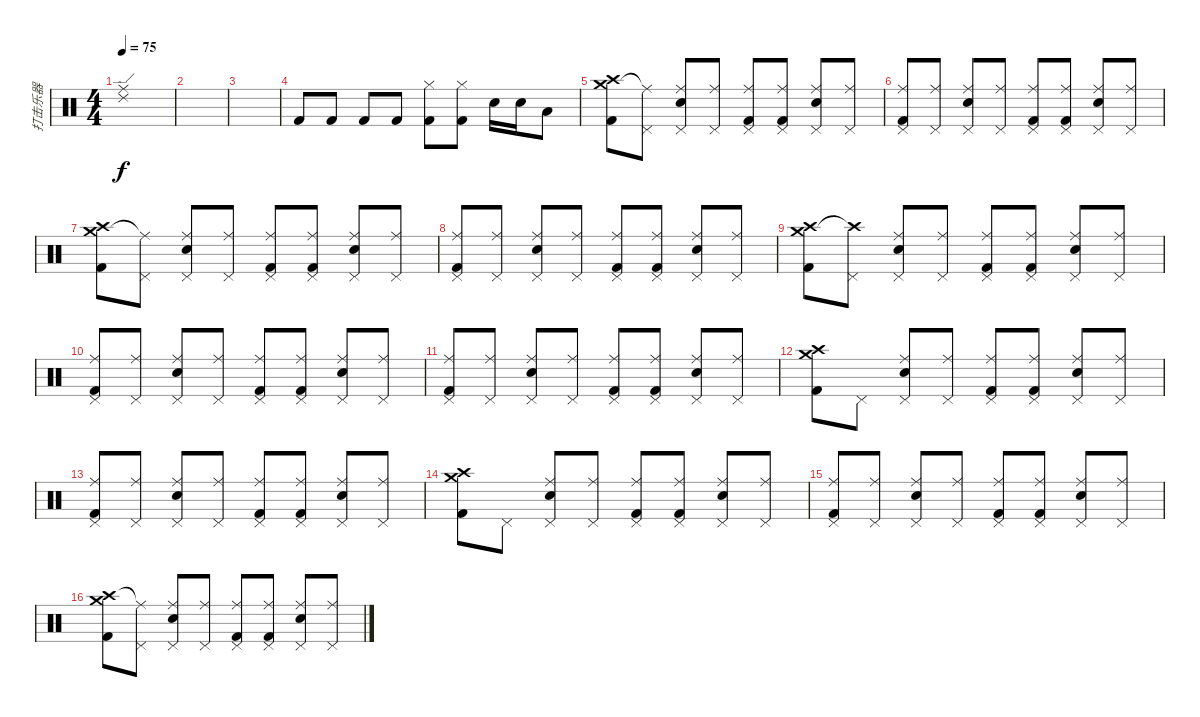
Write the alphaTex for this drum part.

\track ("打击乐器" "打击乐器") {instrument percussion}
\staff {score}
\articulation defaults
\ts (4 4)
\tempo 75
\clef neutral
\ks c
("Ride (edge) 2" "Ride (middle)").1{dy f} |
|
|
"Kick (hit) 2".8 "Kick (hit) 2".8 "Kick (hit) 2".8 "Kick (hit) 2".8 ("Hi-Hat (closed)" "Kick (hit) 2").8 ("Hi-Hat (closed)" "Kick (hit) 2").8 "Electric Snare (hit)".16 "Electric Snare (hit)".16 "Low Tom (hit)".8 |
("Crash medium (hit)" "Crash high (hit)" "Kick (hit) 2").8 ("Ride (middle)"{t} "Pedal Hi-Hat (hit)").8 ("Ride (middle)" "Pedal Hi-Hat (hit)" "Electric Snare (hit)").8 ("Ride (middle)" "Pedal Hi-Hat (hit)").8 ("Ride (middle)" "Pedal Hi-Hat (hit)" "Kick (hit) 2").8 ("Ride (middle)" "Pedal Hi-Hat (hit)" "Kick (hit) 2").8 ("Ride (middle)" "Pedal Hi-Hat (hit)" "Electric Snare (hit)").8 ("Ride (middle)" "Pedal Hi-Hat (hit)").8 |
("Ride (middle)" "Pedal Hi-Hat (hit)" "Kick (hit) 2").8 ("Ride (middle)" "Pedal Hi-Hat (hit)").8 ("Ride (middle)" "Pedal Hi-Hat (hit)" "Electric Snare (hit)").8 ("Ride (middle)" "Pedal Hi-Hat (hit)").8 ("Ride (middle)" "Pedal Hi-Hat (hit)" "Kick (hit) 2").8 ("Ride (middle)" "Pedal Hi-Hat (hit)" "Kick (hit) 2").8 ("Ride (middle)" "Pedal Hi-Hat (hit)" "Electric Snare (hit)").8 ("Ride (middle)" "Pedal Hi-Hat (hit)").8 |
("Crash medium (hit)" "Crash high (hit)" "Kick (hit) 2").8 ("Ride (middle)"{t} "Pedal Hi-Hat (hit)").8 ("Ride (middle)" "Pedal Hi-Hat (hit)" "Electric Snare (hit)").8 ("Ride (middle)" "Pedal Hi-Hat (hit)").8 ("Ride (middle)" "Pedal Hi-Hat (hit)" "Kick (hit) 2").8 ("Ride (middle)" "Pedal Hi-Hat (hit)" "Kick (hit) 2").8 ("Ride (middle)" "Pedal Hi-Hat (hit)" "Electric Snare (hit)").8 ("Ride (middle)" "Pedal Hi-Hat (hit)").8 |
("Ride (middle)" "Pedal Hi-Hat (hit)" "Kick (hit) 2").8 ("Ride (middle)" "Pedal Hi-Hat (hit)").8 ("Ride (middle)" "Pedal Hi-Hat (hit)" "Electric Snare (hit)").8 ("Ride (middle)" "Pedal Hi-Hat (hit)").8 ("Ride (middle)" "Pedal Hi-Hat (hit)" "Kick (hit) 2").8 ("Ride (middle)" "Pedal Hi-Hat (hit)" "Kick (hit) 2").8 ("Ride (middle)" "Pedal Hi-Hat (hit)" "Electric Snare (hit)").8 ("Ride (middle)" "Pedal Hi-Hat (hit)").8 |
("Crash medium (hit)" "Crash high (hit)" "Kick (hit) 2").8 ("Crash high (hit)"{t} "Pedal Hi-Hat (hit)").8 ("Ride (middle)" "Pedal Hi-Hat (hit)" "Electric Snare (hit)").8 ("Ride (middle)" "Pedal Hi-Hat (hit)").8 ("Ride (middle)" "Pedal Hi-Hat (hit)" "Kick (hit) 2").8 ("Ride (middle)" "Pedal Hi-Hat (hit)" "Kick (hit) 2").8 ("Ride (middle)" "Pedal Hi-Hat (hit)" "Electric Snare (hit)").8 ("Ride (middle)" "Pedal Hi-Hat (hit)").8 |
("Ride (middle)" "Pedal Hi-Hat (hit)" "Kick (hit) 2").8 ("Ride (middle)" "Pedal Hi-Hat (hit)").8 ("Ride (middle)" "Pedal Hi-Hat (hit)" "Electric Snare (hit)").8 ("Ride (middle)" "Pedal Hi-Hat (hit)").8 ("Ride (middle)" "Pedal Hi-Hat (hit)" "Kick (hit) 2").8 ("Ride (middle)" "Pedal Hi-Hat (hit)" "Kick (hit) 2").8 ("Ride (middle)" "Pedal Hi-Hat (hit)" "Electric Snare (hit)").8 ("Ride (middle)" "Pedal Hi-Hat (hit)").8 |
("Ride (middle)" "Pedal Hi-Hat (hit)" "Kick (hit) 2").8 ("Ride (middle)" "Pedal Hi-Hat (hit)").8 ("Ride (middle)" "Pedal Hi-Hat (hit)" "Electric Snare (hit)").8 ("Ride (middle)" "Pedal Hi-Hat (hit)").8 ("Ride (middle)" "Pedal Hi-Hat (hit)" "Kick (hit) 2").8 ("Ride (middle)" "Pedal Hi-Hat (hit)" "Kick (hit) 2").8 ("Ride (middle)" "Pedal Hi-Hat (hit)" "Electric Snare (hit)").8 ("Ride (middle)" "Pedal Hi-Hat (hit)").8 |
("Crash medium (hit)" "Crash high (hit)" "Kick (hit) 2").8 "Pedal Hi-Hat (hit)".8 ("Ride (middle)" "Pedal Hi-Hat (hit)" "Electric Snare (hit)").8 ("Ride (middle)" "Pedal Hi-Hat (hit)").8 ("Ride (middle)" "Pedal Hi-Hat (hit)" "Kick (hit) 2").8 ("Ride (middle)" "Pedal Hi-Hat (hit)" "Kick (hit) 2").8 ("Ride (middle)" "Pedal Hi-Hat (hit)" "Electric Snare (hit)").8 ("Ride (middle)" "Pedal Hi-Hat (hit)").8 |
("Ride (middle)" "Pedal Hi-Hat (hit)" "Kick (hit) 2").8 ("Ride (middle)" "Pedal Hi-Hat (hit)").8 ("Ride (middle)" "Pedal Hi-Hat (hit)" "Electric Snare (hit)").8 ("Ride (middle)" "Pedal Hi-Hat (hit)").8 ("Ride (middle)" "Pedal Hi-Hat (hit)" "Kick (hit) 2").8 ("Ride (middle)" "Pedal Hi-Hat (hit)" "Kick (hit) 2").8 ("Ride (middle)" "Pedal Hi-Hat (hit)" "Electric Snare (hit)").8 ("Ride (middle)" "Pedal Hi-Hat (hit)").8 |
("Crash high (hit)" "Crash medium (hit)" "Kick (hit) 2").8 "Pedal Hi-Hat (hit)".8 ("Ride (middle)" "Pedal Hi-Hat (hit)" "Electric Snare (hit)").8 ("Ride (middle)" "Pedal Hi-Hat (hit)").8 ("Ride (middle)" "Pedal Hi-Hat (hit)" "Kick (hit) 2").8 ("Ride (middle)" "Pedal Hi-Hat (hit)" "Kick (hit) 2").8 ("Ride (middle)" "Pedal Hi-Hat (hit)" "Electric Snare (hit)").8 ("Ride (middle)" "Pedal Hi-Hat (hit)").8 |
("Ride (middle)" "Pedal Hi-Hat (hit)" "Kick (hit) 2").8 ("Ride (middle)" "Pedal Hi-Hat (hit)").8 ("Ride (middle)" "Pedal Hi-Hat (hit)" "Electric Snare (hit)").8 ("Ride (middle)" "Pedal Hi-Hat (hit)").8 ("Ride (middle)" "Pedal Hi-Hat (hit)" "Kick (hit) 2").8 ("Ride (middle)" "Pedal Hi-Hat (hit)" "Kick (hit) 2").8 ("Ride (middle)" "Pedal Hi-Hat (hit)" "Electric Snare (hit)").8 ("Ride (middle)" "Pedal Hi-Hat (hit)").8 |
("Crash high (hit)" "Crash medium (hit)" "Kick (hit) 2").8 ("Ride (middle)"{t} "Pedal Hi-Hat (hit)").8 ("Ride (middle)" "Pedal Hi-Hat (hit)" "Electric Snare (hit)").8 ("Ride (middle)" "Pedal Hi-Hat (hit)").8 ("Ride (middle)" "Pedal Hi-Hat (hit)" "Kick (hit) 2").8 ("Ride (middle)" "Pedal Hi-Hat (hit)" "Kick (hit) 2").8 ("Ride (middle)" "Pedal Hi-Hat (hit)" "Electric Snare (hit)").8 ("Ride (middle)" "Pedal Hi-Hat (hit)").8
